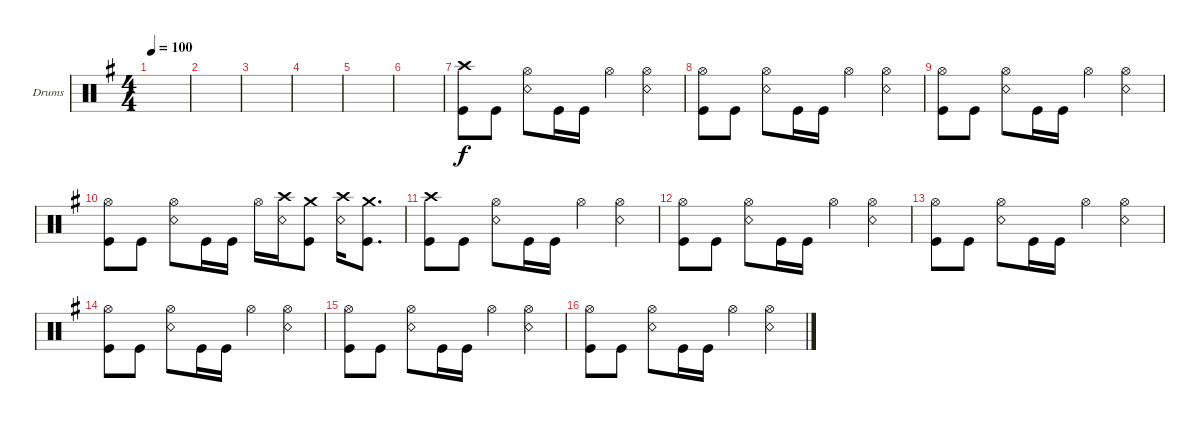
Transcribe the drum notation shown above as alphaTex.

\defaultSystemsLayout 4
\bracketExtendMode groupsimilarinstruments
\firstSystemTrackNameOrientation horizontal
\otherSystemsTrackNameOrientation horizontal
\track ("Drumkit" "Drums") {instrument percussion}
\staff {score}
\articulation defaults
\ts (4 4)
\tempo 100
\clef neutral
\ks eminor
|
|
|
|
|
|
("Kick (hit)" "Crash high (hit)").8 "Kick (hit)".8 ("Hi-Hat (open)" "Snare (rim shot)").8 "Kick (hit)".16 "Kick (hit)".16 "Hi-Hat (open)".4 ("Hi-Hat (open)" "Snare (rim shot)").4 |
("Kick (hit)" "Hi-Hat (open)").8 "Kick (hit)".8 ("Hi-Hat (open)" "Snare (rim shot)").8 "Kick (hit)".16 "Kick (hit)".16 "Hi-Hat (open)".4 ("Hi-Hat (open)" "Snare (rim shot)").4 |
("Kick (hit)" "Hi-Hat (open)").8 "Kick (hit)".8 ("Hi-Hat (open)" "Snare (rim shot)").8 "Kick (hit)".16 "Kick (hit)".16 "Hi-Hat (open)".4 ("Hi-Hat (open)" "Snare (rim shot)").4 |
("Kick (hit)" "Hi-Hat (open)").8 "Kick (hit)".8 ("Hi-Hat (open)" "Snare (rim shot)").8 "Kick (hit)".16 "Kick (hit)".16 "Hi-Hat (open)".16 ("Snare (rim shot)" "Crash high (hit)").16 ("Kick (hit)" "Crash medium (hit)").8 ("Snare (rim shot)" "Crash high (hit)").16 ("Kick (hit)" "Crash medium (hit)").8{d} |
("Kick (hit)" "Crash high (hit)").8 "Kick (hit)".8 ("Hi-Hat (open)" "Snare (rim shot)").8 "Kick (hit)".16 "Kick (hit)".16 "Hi-Hat (open)".4 ("Hi-Hat (open)" "Snare (rim shot)").4 |
("Kick (hit)" "Hi-Hat (open)").8 "Kick (hit)".8 ("Hi-Hat (open)" "Snare (rim shot)").8 "Kick (hit)".16 "Kick (hit)".16 "Hi-Hat (open)".4 ("Hi-Hat (open)" "Snare (rim shot)").4 |
("Kick (hit)" "Hi-Hat (open)").8 "Kick (hit)".8 ("Hi-Hat (open)" "Snare (rim shot)").8 "Kick (hit)".16 "Kick (hit)".16 "Hi-Hat (open)".4 ("Hi-Hat (open)" "Snare (rim shot)").4 |
("Kick (hit)" "Hi-Hat (open)").8 "Kick (hit)".8 ("Hi-Hat (open)" "Snare (rim shot)").8 "Kick (hit)".16 "Kick (hit)".16 "Hi-Hat (open)".4 ("Hi-Hat (open)" "Snare (rim shot)").4 |
("Kick (hit)" "Hi-Hat (open)").8 "Kick (hit)".8 ("Hi-Hat (open)" "Snare (rim shot)").8 "Kick (hit)".16 "Kick (hit)".16 "Hi-Hat (open)".4 ("Hi-Hat (open)" "Snare (rim shot)").4 |
("Kick (hit)" "Hi-Hat (open)").8 "Kick (hit)".8 ("Hi-Hat (open)" "Snare (rim shot)").8 "Kick (hit)".16 "Kick (hit)".16 "Hi-Hat (open)".4 ("Hi-Hat (open)" "Snare (rim shot)").4
